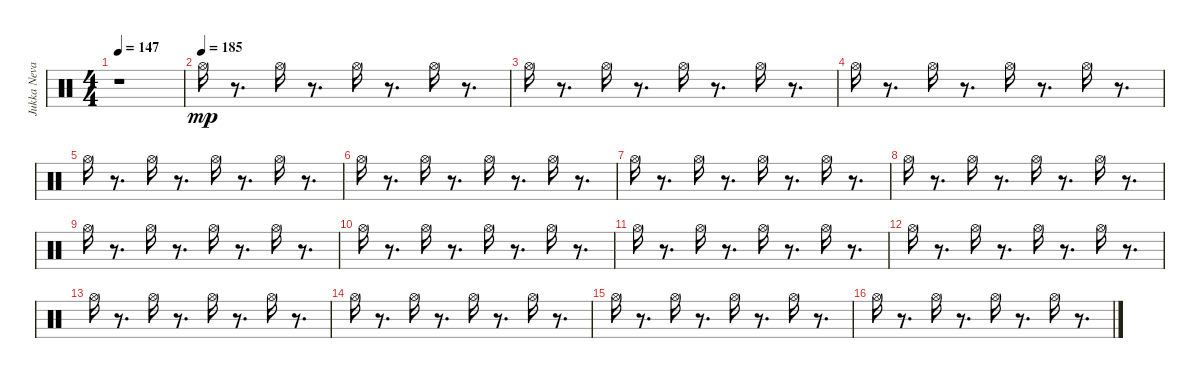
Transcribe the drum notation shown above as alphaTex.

\track ("Jukka Nevalinen" "Jukka Neva") {instrument percussion}
\staff {score}
\articulation defaults
\ts (4 4)
\tempo 147
\clef neutral
\ks c
r.1{dy mp} |
\tempo (185)
"Hi-Hat (open)".16 r.8{d} "Hi-Hat (open)".16 r.8{d} "Hi-Hat (open)".16 r.8{d} "Hi-Hat (open)".16 r.8{d} |
"Hi-Hat (open)".16 r.8{d} "Hi-Hat (open)".16 r.8{d} "Hi-Hat (open)".16 r.8{d} "Hi-Hat (open)".16 r.8{d} |
"Hi-Hat (open)".16 r.8{d} "Hi-Hat (open)".16 r.8{d} "Hi-Hat (open)".16 r.8{d} "Hi-Hat (open)".16 r.8{d} |
"Hi-Hat (open)".16 r.8{d} "Hi-Hat (open)".16 r.8{d} "Hi-Hat (open)".16 r.8{d} "Hi-Hat (open)".16 r.8{d} |
"Hi-Hat (open)".16 r.8{d} "Hi-Hat (open)".16 r.8{d} "Hi-Hat (open)".16 r.8{d} "Hi-Hat (open)".16 r.8{d} |
"Hi-Hat (open)".16 r.8{d} "Hi-Hat (open)".16 r.8{d} "Hi-Hat (open)".16 r.8{d} "Hi-Hat (open)".16 r.8{d} |
"Hi-Hat (open)".16 r.8{d} "Hi-Hat (open)".16 r.8{d} "Hi-Hat (open)".16 r.8{d} "Hi-Hat (open)".16 r.8{d} |
"Hi-Hat (open)".16 r.8{d} "Hi-Hat (open)".16 r.8{d} "Hi-Hat (open)".16 r.8{d} "Hi-Hat (open)".16 r.8{d} |
"Hi-Hat (open)".16 r.8{d} "Hi-Hat (open)".16 r.8{d} "Hi-Hat (open)".16 r.8{d} "Hi-Hat (open)".16 r.8{d} |
"Hi-Hat (open)".16 r.8{d} "Hi-Hat (open)".16 r.8{d} "Hi-Hat (open)".16 r.8{d} "Hi-Hat (open)".16 r.8{d} |
"Hi-Hat (open)".16 r.8{d} "Hi-Hat (open)".16 r.8{d} "Hi-Hat (open)".16 r.8{d} "Hi-Hat (open)".16 r.8{d} |
"Hi-Hat (open)".16 r.8{d} "Hi-Hat (open)".16 r.8{d} "Hi-Hat (open)".16 r.8{d} "Hi-Hat (open)".16 r.8{d} |
"Hi-Hat (open)".16 r.8{d} "Hi-Hat (open)".16 r.8{d} "Hi-Hat (open)".16 r.8{d} "Hi-Hat (open)".16 r.8{d} |
"Hi-Hat (open)".16 r.8{d} "Hi-Hat (open)".16 r.8{d} "Hi-Hat (open)".16 r.8{d} "Hi-Hat (open)".16 r.8{d} |
"Hi-Hat (open)".16 r.8{d} "Hi-Hat (open)".16 r.8{d} "Hi-Hat (open)".16 r.8{d} "Hi-Hat (open)".16 r.8{d}
